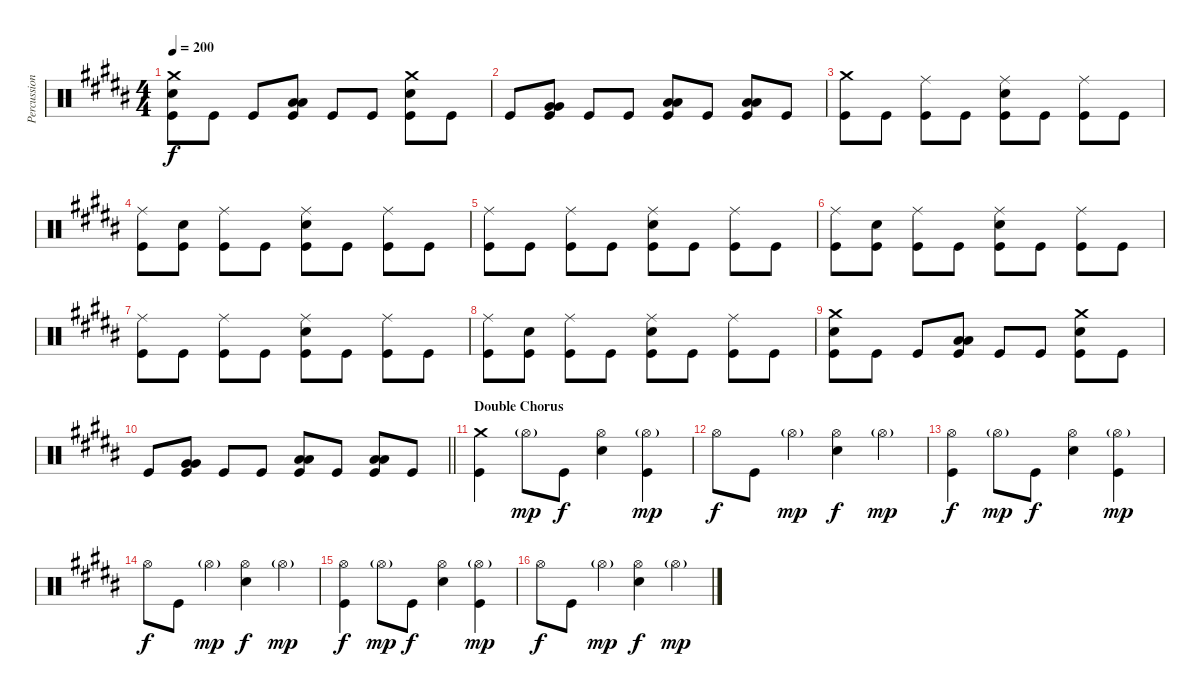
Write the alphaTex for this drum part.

\track ("Percussion" "Percussion") {instrument percussion}
\staff {score}
\articulation defaults
\ts (4 4)
\tempo 200
\clef neutral
\ks b
("Crash medium (hit)" "Electric Snare (hit)" "Kick (hit)").8{dy f} "Kick (hit)".8 "Kick (hit)".8 ("Low Tom (hit)" "Low Tom (hit)" "Kick (hit)").8 "Kick (hit)".8 "Kick (hit)".8 ("Crash medium (hit)" "Electric Snare (hit)" "Kick (hit)").8 "Kick (hit)".8 |
"Kick (hit)".8 ("Very Low Tom (hit)" "Very Low Tom (hit)" "Kick (hit)").8 "Kick (hit)".8 "Kick (hit)".8 ("Low Floor Tom (hit)" "Low Floor Tom (hit)" "Kick (hit)").8 "Kick (hit)".8 ("Low Floor Tom (hit)" "Low Floor Tom (hit)" "Kick (hit)").8 "Kick (hit)".8 |
("Crash medium (hit)" "Kick (hit)").8 "Kick (hit)".8 ("Ride (middle)" "Kick (hit)").8 "Kick (hit)".8 ("Ride (middle)" "Electric Snare (hit)" "Kick (hit)").8 "Kick (hit)".8 ("Ride (middle)" "Kick (hit)").8 "Kick (hit)".8 |
("Ride (middle)" "Kick (hit)").8 ("Electric Snare (hit)" "Kick (hit)").8 ("Ride (middle)" "Kick (hit)").8 "Kick (hit)".8 ("Ride (middle)" "Electric Snare (hit)" "Kick (hit)").8 "Kick (hit)".8 ("Ride (middle)" "Kick (hit)").8 "Kick (hit)".8 |
("Ride (middle)" "Kick (hit)").8 "Kick (hit)".8 ("Ride (middle)" "Kick (hit)").8 "Kick (hit)".8 ("Ride (middle)" "Electric Snare (hit)" "Kick (hit)").8 "Kick (hit)".8 ("Ride (middle)" "Kick (hit)").8 "Kick (hit)".8 |
("Ride (middle)" "Kick (hit)").8 ("Electric Snare (hit)" "Kick (hit)").8 ("Ride (middle)" "Kick (hit)").8 "Kick (hit)".8 ("Ride (middle)" "Electric Snare (hit)" "Kick (hit)").8 "Kick (hit)".8 ("Ride (middle)" "Kick (hit)").8 "Kick (hit)".8 |
("Ride (middle)" "Kick (hit)").8 "Kick (hit)".8 ("Ride (middle)" "Kick (hit)").8 "Kick (hit)".8 ("Ride (middle)" "Electric Snare (hit)" "Kick (hit)").8 "Kick (hit)".8 ("Ride (middle)" "Kick (hit)").8 "Kick (hit)".8 |
("Ride (middle)" "Kick (hit)").8 ("Electric Snare (hit)" "Kick (hit)").8 ("Ride (middle)" "Kick (hit)").8 "Kick (hit)".8 ("Ride (middle)" "Electric Snare (hit)" "Kick (hit)").8 "Kick (hit)".8 ("Ride (middle)" "Kick (hit)").8 "Kick (hit)".8 |
("Crash medium (hit)" "Electric Snare (hit)" "Kick (hit)").8 "Kick (hit)".8 "Kick (hit)".8 ("Low Tom (hit)" "Low Tom (hit)" "Kick (hit)").8 "Kick (hit)".8 "Kick (hit)".8 ("Crash medium (hit)" "Electric Snare (hit)" "Kick (hit)").8 "Kick (hit)".8 |
\barLineRight lightlight "Kick (hit)".8
("Very Low Tom (hit)" "Very Low Tom (hit)" "Kick (hit)").8 "Kick (hit)".8 "Kick (hit)".8 ("Low Floor Tom (hit)" "Low Floor Tom (hit)" "Kick (hit)").8 "Kick (hit)".8 ("Low Floor Tom (hit)" "Low Floor Tom (hit)" "Kick (hit)").8 "Kick (hit)".8 |
\section ("" "Double Chorus")
("Crash medium (hit)" "Kick (hit)").4 "Hi-Hat (open)"{g}.8{dy mp} "Kick (hit)".8{dy f} ("Hi-Hat (open)" "Electric Snare (hit)").4 ("Hi-Hat (open)"{g} "Kick (hit)").4{dy mp} |
"Hi-Hat (open)".8{dy f} "Kick (hit)".8 "Hi-Hat (open)"{g}.4{dy mp} ("Hi-Hat (open)" "Electric Snare (hit)").4{dy f} "Hi-Hat (open)"{g}.4{dy mp} |
("Hi-Hat (open)" "Kick (hit)").4{dy f} "Hi-Hat (open)"{g}.8{dy mp} "Kick (hit)".8{dy f} ("Hi-Hat (open)" "Electric Snare (hit)").4 ("Hi-Hat (open)"{g} "Kick (hit)").4{dy mp} |
"Hi-Hat (open)".8{dy f} "Kick (hit)".8 "Hi-Hat (open)"{g}.4{dy mp} ("Hi-Hat (open)" "Electric Snare (hit)").4{dy f} "Hi-Hat (open)"{g}.4{dy mp} |
("Hi-Hat (open)" "Kick (hit)").4{dy f} "Hi-Hat (open)"{g}.8{dy mp} "Kick (hit)".8{dy f} ("Hi-Hat (open)" "Electric Snare (hit)").4 ("Hi-Hat (open)"{g} "Kick (hit)").4{dy mp} |
"Hi-Hat (open)".8{dy f} "Kick (hit)".8 "Hi-Hat (open)"{g}.4{dy mp} ("Hi-Hat (open)" "Electric Snare (hit)").4{dy f} "Hi-Hat (open)"{g}.4{dy mp}
